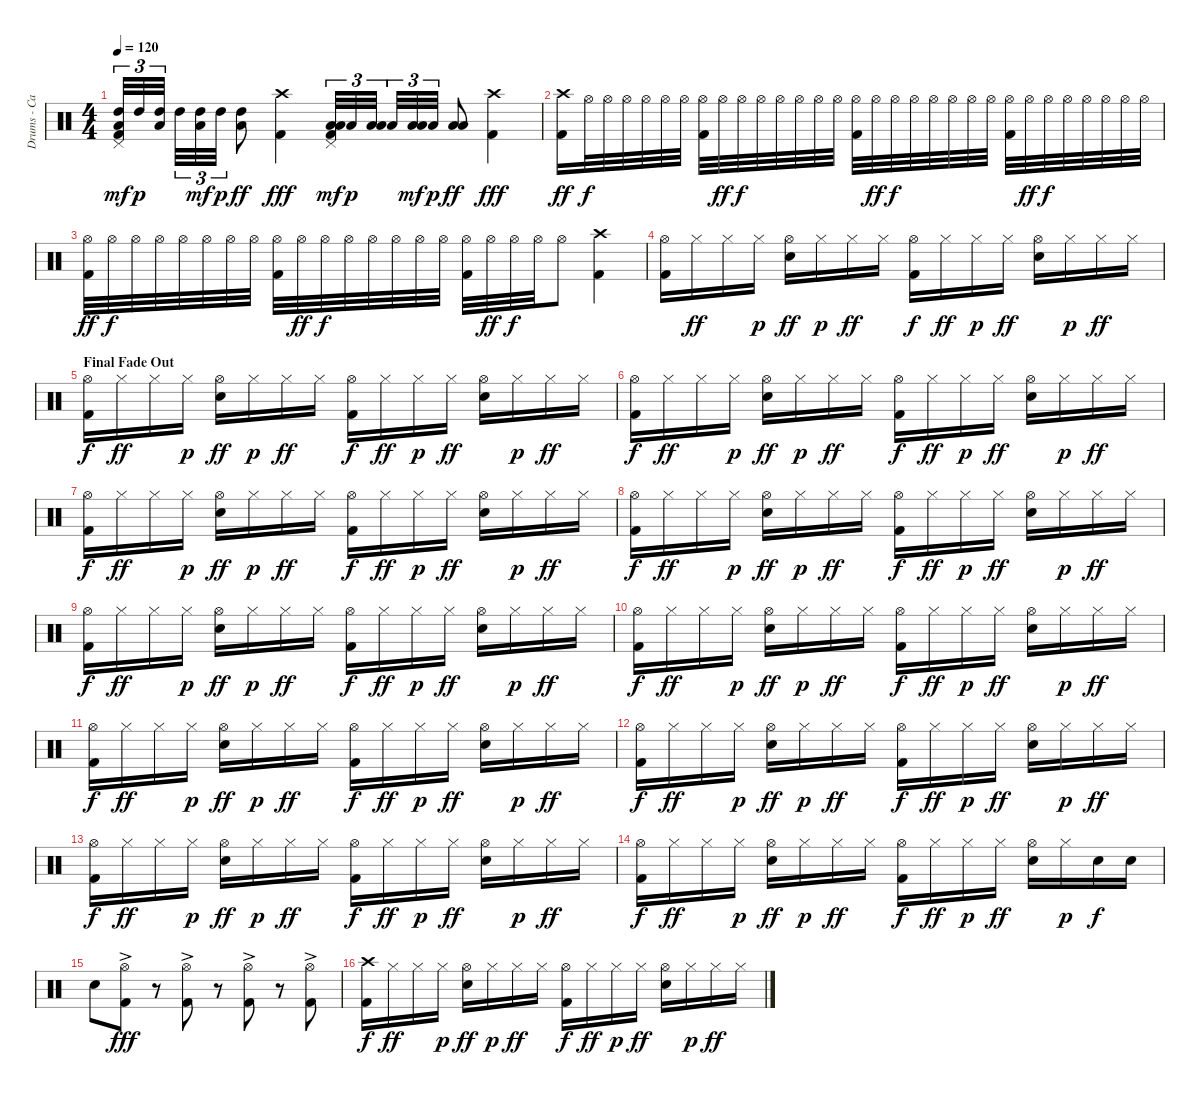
\track ("Drums - Carl Palmer" "Drums - Ca") {instrument percussion}
\staff {score}
\articulation defaults
\ts (4 4)
\tempo 120
\clef neutral
\ks c
("High Tom (hit)" "Low Tom (hit)" "Pedal Hi-Hat (hit)" "Kick (hit) 2").32{tu (3 2) dy mf} "High Tom (hit)".32{tu (3 2) dy p} ("High Tom (hit)" "Low Tom (hit)").32{tu (3 2)} "High Tom (hit)".32{tu (3 2)} ("High Tom (hit)" "Low Tom (hit)").32{tu (3 2) dy mf} "High Tom (hit)".32{tu (3 2) dy p} ("High Tom (hit)" "Low Tom (hit)").8{dy ff} ("Crash high (hit)" "Kick (hit) 2").4{dy fff} ("Low Tom (hit)" "Low Floor Tom (hit)" "Pedal Hi-Hat (hit)" "Kick (hit) 2").32{tu (3 2) dy mf} "Low Tom (hit)".32{tu (3 2) dy p} ("Low Tom (hit)" "Low Floor Tom (hit)").32{tu (3 2)} "Low Tom (hit)".32{tu (3 2)} ("Low Tom (hit)" "Low Floor Tom (hit)").32{tu (3 2) dy mf} "Low Tom (hit)".32{tu (3 2) dy p} ("Low Tom (hit)" "Low Floor Tom (hit)").8{dy ff} ("Crash high (hit)" "Kick (hit) 2").4{dy fff} |
("Crash high (hit)" "Kick (hit) 2").16{dy ff} "Hi-Hat (open)".32{dy f} "Hi-Hat (open)".32 "Hi-Hat (open)".32 "Hi-Hat (open)".32 "Hi-Hat (open)".32 "Hi-Hat (open)".32 ("Hi-Hat (open)" "Kick (hit) 2").32 "Hi-Hat (open)".32{dy ff} "Hi-Hat (open)".32{dy f} "Hi-Hat (open)".32 "Hi-Hat (open)".32 "Hi-Hat (open)".32 "Hi-Hat (open)".32 "Hi-Hat (open)".32 ("Hi-Hat (open)" "Kick (hit) 2").32 "Hi-Hat (open)".32{dy ff} "Hi-Hat (open)".32{dy f} "Hi-Hat (open)".32 "Hi-Hat (open)".32 "Hi-Hat (open)".32 "Hi-Hat (open)".32 "Hi-Hat (open)".32 ("Hi-Hat (open)" "Kick (hit) 2").32 "Hi-Hat (open)".32{dy ff} "Hi-Hat (open)".32{dy f} "Hi-Hat (open)".32 "Hi-Hat (open)".32 "Hi-Hat (open)".32 "Hi-Hat (open)".32 "Hi-Hat (open)".32 |
("Hi-Hat (open)" "Kick (hit) 2").32{dy ff} "Hi-Hat (open)".32{dy f} "Hi-Hat (open)".32 "Hi-Hat (open)".32 "Hi-Hat (open)".32 "Hi-Hat (open)".32 "Hi-Hat (open)".32 "Hi-Hat (open)".32 ("Hi-Hat (open)" "Kick (hit) 2").32 "Hi-Hat (open)".32{dy ff} "Hi-Hat (open)".32{dy f} "Hi-Hat (open)".32 "Hi-Hat (open)".32 "Hi-Hat (open)".32 "Hi-Hat (open)".32 "Hi-Hat (open)".32 ("Hi-Hat (open)" "Kick (hit) 2").32 "Hi-Hat (open)".32{dy ff} "Hi-Hat (open)".32{dy f} "Hi-Hat (open)".32 "Hi-Hat (open)".8 ("Crash high (hit)" "Kick (hit) 2").4 |
("Hi-Hat (open)" "Kick (hit) 2").16 "Hi-Hat (closed)".16{dy ff} "Hi-Hat (closed)".16 "Hi-Hat (closed)".16{dy p} ("Hi-Hat (open)" "Snare (hit) 2").16{dy ff} "Hi-Hat (closed)".16{dy p} "Hi-Hat (closed)".16{dy ff} "Hi-Hat (closed)".16 ("Hi-Hat (open)" "Kick (hit) 2").16{dy f} "Hi-Hat (closed)".16{dy ff} "Hi-Hat (closed)".16{dy p} "Hi-Hat (closed)".16{dy ff} ("Hi-Hat (open)" "Snare (hit) 2").16 "Hi-Hat (closed)".16{dy p} "Hi-Hat (closed)".16{dy ff} "Hi-Hat (closed)".16 |
\section ("" "Final Fade Out")
("Hi-Hat (open)" "Kick (hit) 2").16{dy f} "Hi-Hat (closed)".16{dy ff} "Hi-Hat (closed)".16 "Hi-Hat (closed)".16{dy p} ("Hi-Hat (open)" "Snare (hit) 2").16{dy ff} "Hi-Hat (closed)".16{dy p} "Hi-Hat (closed)".16{dy ff} "Hi-Hat (closed)".16 ("Hi-Hat (open)" "Kick (hit) 2").16{dy f} "Hi-Hat (closed)".16{dy ff} "Hi-Hat (closed)".16{dy p} "Hi-Hat (closed)".16{dy ff} ("Hi-Hat (open)" "Snare (hit) 2").16 "Hi-Hat (closed)".16{dy p} "Hi-Hat (closed)".16{dy ff} "Hi-Hat (closed)".16 |
("Hi-Hat (open)" "Kick (hit) 2").16{dy f} "Hi-Hat (closed)".16{dy ff} "Hi-Hat (closed)".16 "Hi-Hat (closed)".16{dy p} ("Hi-Hat (open)" "Snare (hit) 2").16{dy ff} "Hi-Hat (closed)".16{dy p} "Hi-Hat (closed)".16{dy ff} "Hi-Hat (closed)".16 ("Hi-Hat (open)" "Kick (hit) 2").16{dy f} "Hi-Hat (closed)".16{dy ff} "Hi-Hat (closed)".16{dy p} "Hi-Hat (closed)".16{dy ff} ("Hi-Hat (open)" "Snare (hit) 2").16 "Hi-Hat (closed)".16{dy p} "Hi-Hat (closed)".16{dy ff} "Hi-Hat (closed)".16 |
("Hi-Hat (open)" "Kick (hit) 2").16{dy f} "Hi-Hat (closed)".16{dy ff} "Hi-Hat (closed)".16 "Hi-Hat (closed)".16{dy p} ("Hi-Hat (open)" "Snare (hit) 2").16{dy ff} "Hi-Hat (closed)".16{dy p} "Hi-Hat (closed)".16{dy ff} "Hi-Hat (closed)".16 ("Hi-Hat (open)" "Kick (hit) 2").16{dy f} "Hi-Hat (closed)".16{dy ff} "Hi-Hat (closed)".16{dy p} "Hi-Hat (closed)".16{dy ff} ("Hi-Hat (open)" "Snare (hit) 2").16 "Hi-Hat (closed)".16{dy p} "Hi-Hat (closed)".16{dy ff} "Hi-Hat (closed)".16 |
("Hi-Hat (open)" "Kick (hit) 2").16{dy f} "Hi-Hat (closed)".16{dy ff} "Hi-Hat (closed)".16 "Hi-Hat (closed)".16{dy p} ("Hi-Hat (open)" "Snare (hit) 2").16{dy ff} "Hi-Hat (closed)".16{dy p} "Hi-Hat (closed)".16{dy ff} "Hi-Hat (closed)".16 ("Hi-Hat (open)" "Kick (hit) 2").16{dy f} "Hi-Hat (closed)".16{dy ff} "Hi-Hat (closed)".16{dy p} "Hi-Hat (closed)".16{dy ff} ("Hi-Hat (open)" "Snare (hit) 2").16 "Hi-Hat (closed)".16{dy p} "Hi-Hat (closed)".16{dy ff} "Hi-Hat (closed)".16 |
("Hi-Hat (open)" "Kick (hit) 2").16{dy f} "Hi-Hat (closed)".16{dy ff} "Hi-Hat (closed)".16 "Hi-Hat (closed)".16{dy p} ("Hi-Hat (open)" "Snare (hit) 2").16{dy ff} "Hi-Hat (closed)".16{dy p} "Hi-Hat (closed)".16{dy ff} "Hi-Hat (closed)".16 ("Hi-Hat (open)" "Kick (hit) 2").16{dy f} "Hi-Hat (closed)".16{dy ff} "Hi-Hat (closed)".16{dy p} "Hi-Hat (closed)".16{dy ff} ("Hi-Hat (open)" "Snare (hit) 2").16 "Hi-Hat (closed)".16{dy p} "Hi-Hat (closed)".16{dy ff} "Hi-Hat (closed)".16 |
("Hi-Hat (open)" "Kick (hit) 2").16{dy f} "Hi-Hat (closed)".16{dy ff} "Hi-Hat (closed)".16 "Hi-Hat (closed)".16{dy p} ("Hi-Hat (open)" "Snare (hit) 2").16{dy ff} "Hi-Hat (closed)".16{dy p} "Hi-Hat (closed)".16{dy ff} "Hi-Hat (closed)".16 ("Hi-Hat (open)" "Kick (hit) 2").16{dy f} "Hi-Hat (closed)".16{dy ff} "Hi-Hat (closed)".16{dy p} "Hi-Hat (closed)".16{dy ff} ("Hi-Hat (open)" "Snare (hit) 2").16 "Hi-Hat (closed)".16{dy p} "Hi-Hat (closed)".16{dy ff} "Hi-Hat (closed)".16 |
("Hi-Hat (open)" "Kick (hit) 2").16{dy f} "Hi-Hat (closed)".16{dy ff} "Hi-Hat (closed)".16 "Hi-Hat (closed)".16{dy p} ("Hi-Hat (open)" "Snare (hit) 2").16{dy ff} "Hi-Hat (closed)".16{dy p} "Hi-Hat (closed)".16{dy ff} "Hi-Hat (closed)".16 ("Hi-Hat (open)" "Kick (hit) 2").16{dy f} "Hi-Hat (closed)".16{dy ff} "Hi-Hat (closed)".16{dy p} "Hi-Hat (closed)".16{dy ff} ("Hi-Hat (open)" "Snare (hit) 2").16 "Hi-Hat (closed)".16{dy p} "Hi-Hat (closed)".16{dy ff} "Hi-Hat (closed)".16 |
("Hi-Hat (open)" "Kick (hit) 2").16{dy f} "Hi-Hat (closed)".16{dy ff} "Hi-Hat (closed)".16 "Hi-Hat (closed)".16{dy p} ("Hi-Hat (open)" "Snare (hit) 2").16{dy ff} "Hi-Hat (closed)".16{dy p} "Hi-Hat (closed)".16{dy ff} "Hi-Hat (closed)".16 ("Hi-Hat (open)" "Kick (hit) 2").16{dy f} "Hi-Hat (closed)".16{dy ff} "Hi-Hat (closed)".16{dy p} "Hi-Hat (closed)".16{dy ff} ("Hi-Hat (open)" "Snare (hit) 2").16 "Hi-Hat (closed)".16{dy p} "Hi-Hat (closed)".16{dy ff} "Hi-Hat (closed)".16 |
("Hi-Hat (open)" "Kick (hit) 2").16{dy f} "Hi-Hat (closed)".16{dy ff} "Hi-Hat (closed)".16 "Hi-Hat (closed)".16{dy p} ("Hi-Hat (open)" "Snare (hit) 2").16{dy ff} "Hi-Hat (closed)".16{dy p} "Hi-Hat (closed)".16{dy ff} "Hi-Hat (closed)".16 ("Hi-Hat (open)" "Kick (hit) 2").16{dy f} "Hi-Hat (closed)".16{dy ff} "Hi-Hat (closed)".16{dy p} "Hi-Hat (closed)".16{dy ff} ("Hi-Hat (open)" "Snare (hit) 2").16 "Hi-Hat (closed)".16{dy p} "Hi-Hat (closed)".16{dy ff} "Hi-Hat (closed)".16 |
("Hi-Hat (open)" "Kick (hit) 2").16{dy f volume 10} "Hi-Hat (closed)".16{dy ff} "Hi-Hat (closed)".16 "Hi-Hat (closed)".16{dy p} ("Hi-Hat (open)" "Snare (hit) 2").16{dy ff} "Hi-Hat (closed)".16{dy p} "Hi-Hat (closed)".16{dy ff} "Hi-Hat (closed)".16 ("Hi-Hat (open)" "Kick (hit) 2").16{dy f} "Hi-Hat (closed)".16{dy ff} "Hi-Hat (closed)".16{dy p} "Hi-Hat (closed)".16{dy ff} ("Hi-Hat (open)" "Snare (hit) 2").16 "Hi-Hat (closed)".16{dy p} "Snare (hit) 2".16{dy f} "Snare (hit) 2".16 |
"Snare (hit) 2".8 ("Hi-Hat (open)"{ac} "Kick (hit) 2").8{dy fff} r.8 ("Hi-Hat (open)"{ac} "Kick (hit) 2").8 r.8 ("Hi-Hat (open)"{ac} "Kick (hit) 2").8 r.8 ("Hi-Hat (open)"{ac} "Kick (hit) 2").8 |
("Crash high (hit)" "Kick (hit) 2").16{dy f volume 7} "Hi-Hat (closed)".16{dy ff} "Hi-Hat (closed)".16 "Hi-Hat (closed)".16{dy p} ("Hi-Hat (open)" "Snare (hit) 2").16{dy ff} "Hi-Hat (closed)".16{dy p} "Hi-Hat (closed)".16{dy ff} "Hi-Hat (closed)".16 ("Hi-Hat (open)" "Kick (hit) 2").16{dy f} "Hi-Hat (closed)".16{dy ff} "Hi-Hat (closed)".16{dy p} "Hi-Hat (closed)".16{dy ff} ("Hi-Hat (open)" "Snare (hit) 2").16 "Hi-Hat (closed)".16{dy p} "Hi-Hat (closed)".16{dy ff} "Hi-Hat (closed)".16
